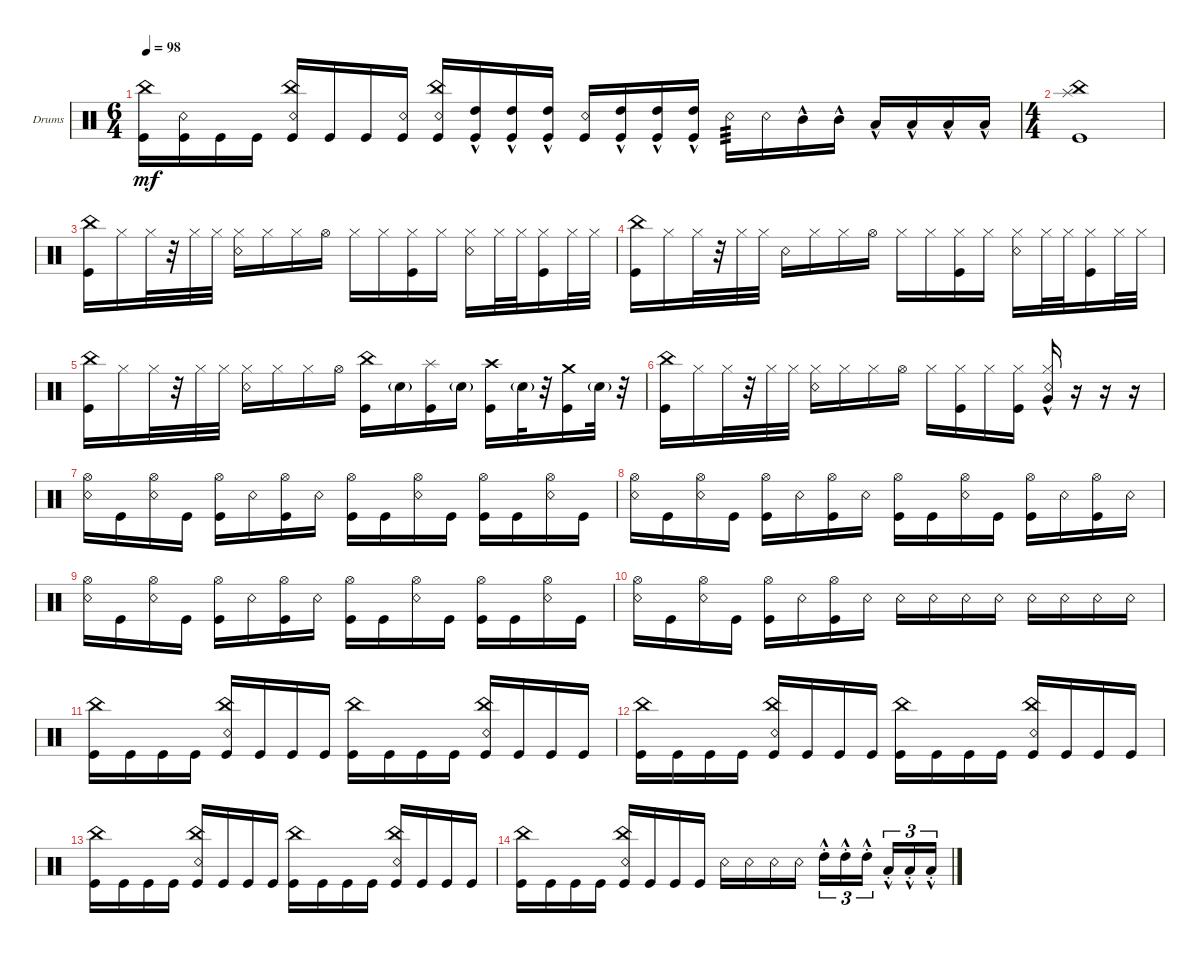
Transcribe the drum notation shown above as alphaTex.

\defaultSystemsLayout 4
\bracketExtendMode groupsimilarinstruments
\firstSystemTrackNameOrientation horizontal
\otherSystemsTrackNameOrientation horizontal
\track ("Drumkit" "Drums") {instrument percussion}
\staff {score}
\articulation defaults
\ts (6 4)
\tempo 98
\clef neutral
\scale
0.333333
\ks c
("Kick (hit)" "China (hit)").16{dy mf} ("Kick (hit)" "Snare (rim shot)").16 "Kick (hit)".16 "Kick (hit)".16 ("Kick (hit)" "China (hit)" "Snare (rim shot)").16 "Kick (hit)".16 "Kick (hit)".16 ("Kick (hit)" "Snare (rim shot)").16 ("Kick (hit)" "China (hit)" "Snare (rim shot)").16 ("Kick (hit)" "High Tom (hit)"{hac}).16 ("Kick (hit)" "High Tom (hit)"{hac}).16 ("Kick (hit)" "High Tom (hit)"{hac}).16 ("Kick (hit)" "Snare (rim shot)").16 ("Kick (hit)" "High Tom (hit)"{hac}).16 ("Kick (hit)" "High Tom (hit)"{hac}).16 ("Kick (hit)" "High Tom (hit)"{hac}).16 "Snare (rim shot)".16{tp 3} "Snare (rim shot)".16 "Mid Tom (hit)"{hac}.16 "Mid Tom (hit)"{hac}.16 "Low Tom (hit)"{hac}.16 "Low Tom (hit)"{hac}.16 "Low Tom (hit)"{hac}.16 "Low Tom (hit)"{hac}.16 |
\ts (4 4)
("Kick (hit)" "Splash (hit)" "China (hit)").1 |
\scale
0.333333 ("Kick (hit)" "China (hit)").16 "Hi-Hat (closed)".16 "Hi-Hat (closed)".32 r.32 "Hi-Hat (closed)".32 "Hi-Hat (closed)".32 ("Hi-Hat (closed)" "Snare (rim shot)").16 "Hi-Hat (closed)".16 "Hi-Hat (closed)".16 "Hi-Hat (open)".16 "Hi-Hat (closed)".16 "Hi-Hat (closed)".16 ("Hi-Hat (closed)" "Kick (hit)").16 "Hi-Hat (closed)".16 ("Hi-Hat (closed)" "Snare (rim shot)").16 "Hi-Hat (closed)".32 "Hi-Hat (closed)".32 ("Hi-Hat (closed)" "Kick (hit)").16 "Hi-Hat (closed)".32 "Hi-Hat (closed)".32 |
\scale
0.333333 ("Kick (hit)" "China (hit)").16 "Hi-Hat (closed)".16 "Hi-Hat (closed)".32 r.32 "Hi-Hat (closed)".32 "Hi-Hat (closed)".32 "Snare (rim shot)".16 "Hi-Hat (closed)".16 "Hi-Hat (closed)".16 "Hi-Hat (open)".16 "Hi-Hat (closed)".16 "Hi-Hat (closed)".16 ("Hi-Hat (closed)" "Kick (hit)").16 "Hi-Hat (closed)".16 ("Hi-Hat (closed)" "Snare (rim shot)").16 "Hi-Hat (closed)".32 "Hi-Hat (closed)".32 ("Hi-Hat (closed)" "Kick (hit)").16 "Hi-Hat (closed)".32 "Hi-Hat (closed)".32 |
\scale
0.333333 ("Kick (hit)" "China (hit)").16 "Hi-Hat (closed)".16 "Hi-Hat (closed)".32 r.32 "Hi-Hat (closed)".32 "Hi-Hat (closed)".32 ("Hi-Hat (closed)" "Snare (rim shot)").16 "Hi-Hat (closed)".16 "Hi-Hat (closed)".16 "Hi-Hat (open)".16 ("China (hit)" "Kick (hit)").16 "Snare (hit) 2"{g}.16 ("Kick (hit)" "Splash (hit)").16 "Snare (hit) 2"{g}.16 ("Kick (hit)" "Crash high (hit)").16 "Snare (hit) 2"{g}.32 r.32 ("Kick (hit)" "Crash medium (hit)").16 "Snare (hit) 2"{g}.32 r.32 |
\scale
0.333333 ("Kick (hit)" "China (hit)").16 "Hi-Hat (closed)".16 "Hi-Hat (closed)".32 r.32 "Hi-Hat (closed)".32 "Hi-Hat (closed)".32 ("Hi-Hat (closed)" "Snare (rim shot)").16 "Hi-Hat (closed)".16 "Hi-Hat (closed)".16 "Hi-Hat (open)".16 "Hi-Hat (closed)".16 ("Hi-Hat (closed)" "Kick (hit)").16 "Hi-Hat (closed)".16 ("Hi-Hat (closed)" "Kick (hit)").16 ("Hi-Hat (closed)" "Snare (rim shot)" "Very Low Tom (hit)"{hac}).16 r.16 r.16 r.16 |
\scale
0.333333 ("Snare (rim shot)" "Hi-Hat (open)").16 "Kick (hit)".16 ("Snare (rim shot)" "Hi-Hat (open)").16 "Kick (hit)".16 ("Kick (hit)" "Hi-Hat (open)").16 "Snare (rim shot)".16 ("Kick (hit)" "Hi-Hat (open)").16 "Snare (rim shot)".16 ("Kick (hit)" "Hi-Hat (open)").16 "Kick (hit)".16 ("Snare (rim shot)" "Hi-Hat (open)").16 "Kick (hit)".16 ("Kick (hit)" "Hi-Hat (open)").16 "Kick (hit)".16 ("Snare (rim shot)" "Hi-Hat (open)").16 "Kick (hit)".16 |
("Snare (rim shot)" "Hi-Hat (open)").16 "Kick (hit)".16 ("Snare (rim shot)" "Hi-Hat (open)").16 "Kick (hit)".16 ("Kick (hit)" "Hi-Hat (open)").16 "Snare (rim shot)".16 ("Kick (hit)" "Hi-Hat (open)").16 "Snare (rim shot)".16 ("Kick (hit)" "Hi-Hat (open)").16 "Kick (hit)".16 ("Snare (rim shot)" "Hi-Hat (open)").16 "Kick (hit)".16 ("Kick (hit)" "Hi-Hat (open)").16 "Snare (rim shot)".16 ("Kick (hit)" "Hi-Hat (open)").16 "Snare (rim shot)".16 |
("Snare (rim shot)" "Hi-Hat (open)").16 "Kick (hit)".16 ("Snare (rim shot)" "Hi-Hat (open)").16 "Kick (hit)".16 ("Kick (hit)" "Hi-Hat (open)").16 "Snare (rim shot)".16 ("Kick (hit)" "Hi-Hat (open)").16 "Snare (rim shot)".16 ("Kick (hit)" "Hi-Hat (open)").16 "Kick (hit)".16 ("Snare (rim shot)" "Hi-Hat (open)").16 "Kick (hit)".16 ("Kick (hit)" "Hi-Hat (open)").16 "Kick (hit)".16 ("Snare (rim shot)" "Hi-Hat (open)").16 "Kick (hit)".16 |
("Snare (rim shot)" "Hi-Hat (open)").16 "Kick (hit)".16 ("Snare (rim shot)" "Hi-Hat (open)").16 "Kick (hit)".16 ("Kick (hit)" "Hi-Hat (open)").16 "Snare (rim shot)".16 ("Kick (hit)" "Hi-Hat (open)").16 "Snare (rim shot)".16 "Snare (rim shot)".16 "Snare (rim shot)".16 "Snare (rim shot)".16 "Snare (rim shot)".16 "Snare (rim shot)".16 "Snare (rim shot)".16 "Snare (rim shot)".16 "Snare (rim shot)".16 |
\scale
0.333333 ("Kick (hit)" "China (hit)").16 "Kick (hit)".16 "Kick (hit)".16 "Kick (hit)".16 ("Kick (hit)" "China (hit)" "Snare (rim shot)").16 "Kick (hit)".16 "Kick (hit)".16 "Kick (hit)".16 ("Kick (hit)" "China (hit)").16 "Kick (hit)".16 "Kick (hit)".16 "Kick (hit)".16 ("Kick (hit)" "Snare (rim shot)" "China (hit)").16 "Kick (hit)".16 "Kick (hit)".16 "Kick (hit)".16 |
\scale
0.333333 ("Kick (hit)" "China (hit)").16 "Kick (hit)".16 "Kick (hit)".16 "Kick (hit)".16 ("Kick (hit)" "China (hit)" "Snare (rim shot)").16 "Kick (hit)".16 "Kick (hit)".16 "Kick (hit)".16 ("Kick (hit)" "China (hit)").16 "Kick (hit)".16 "Kick (hit)".16 "Kick (hit)".16 ("Kick (hit)" "Snare (rim shot)" "China (hit)").16 "Kick (hit)".16 "Kick (hit)".16 "Kick (hit)".16 |
\scale
0.333333 ("Kick (hit)" "China (hit)").16 "Kick (hit)".16 "Kick (hit)".16 "Kick (hit)".16 ("Kick (hit)" "China (hit)" "Snare (rim shot)").16 "Kick (hit)".16 "Kick (hit)".16 "Kick (hit)".16 ("Kick (hit)" "China (hit)").16 "Kick (hit)".16 "Kick (hit)".16 "Kick (hit)".16 ("Kick (hit)" "Snare (rim shot)" "China (hit)").16 "Kick (hit)".16 "Kick (hit)".16 "Kick (hit)".16 |
\scale
0.333333 ("Kick (hit)" "China (hit)").16 "Kick (hit)".16 "Kick (hit)".16 "Kick (hit)".16 ("Kick (hit)" "China (hit)" "Snare (rim shot)").16 "Kick (hit)".16 "Kick (hit)".16 "Kick (hit)".16 "Snare (rim shot)".16 "Snare (rim shot)".16 "Snare (rim shot)".16 "Snare (rim shot)".16 "High Tom (hit)"{hac st}.16{tu (3 2)} "High Tom (hit)"{hac st}.16{tu (3 2)} "High Tom (hit)"{hac st}.16{tu (3 2)} "Low Tom (hit)"{hac st}.16{tu (3 2)} "Low Tom (hit)"{hac st}.16{tu (3 2)} "Low Tom (hit)"{hac st}.16{tu (3 2)} |
\scale
0.333333 |
\scale
0.333333
